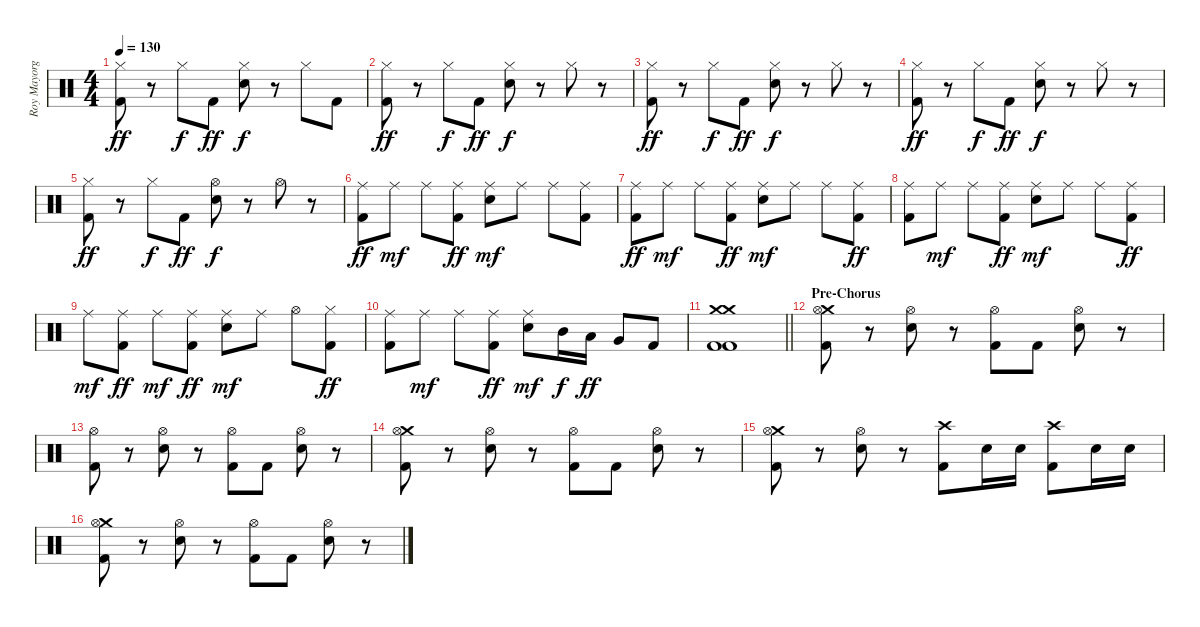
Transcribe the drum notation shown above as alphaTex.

\track ("Roy Mayorga (Drums)" "Roy Mayorg") {instrument percussion}
\staff {score}
\articulation defaults
\ts (4 4)
\tempo 130
\clef neutral
\ks c
("Hi-Hat (closed)" "Kick (hit) 2").8{dy ff} r.8 "Hi-Hat (closed)".8{dy f} "Kick (hit) 2".8{dy ff} ("Hi-Hat (closed)" "Snare (hit) 2").8{dy f} r.8 "Hi-Hat (closed)".8 "Kick (hit) 2".8 |
("Hi-Hat (closed)" "Kick (hit) 2").8{dy ff} r.8 "Hi-Hat (closed)".8{dy f} "Kick (hit) 2".8{dy ff} ("Hi-Hat (closed)" "Snare (hit) 2").8{dy f} r.8 "Hi-Hat (closed)".8 r.8 |
("Hi-Hat (closed)" "Kick (hit) 2").8{dy ff} r.8 "Hi-Hat (closed)".8{dy f} "Kick (hit) 2".8{dy ff} ("Hi-Hat (closed)" "Snare (hit) 2").8{dy f} r.8 "Hi-Hat (closed)".8 r.8 |
("Hi-Hat (closed)" "Kick (hit) 2").8{dy ff} r.8 "Hi-Hat (closed)".8{dy f} "Kick (hit) 2".8{dy ff} ("Hi-Hat (closed)" "Snare (hit) 2").8{dy f} r.8 "Hi-Hat (closed)".8 r.8 |
("Hi-Hat (closed)" "Kick (hit) 2").8{dy ff} r.8 "Hi-Hat (closed)".8{dy f} "Kick (hit) 2".8{dy ff} ("Hi-Hat (open)" "Snare (hit) 2").8{dy f} r.8 "Hi-Hat (open)".8 r.8 |
("Ride (middle)" "Kick (hit) 2").8{dy ff} "Ride (middle)".8{dy mf} "Ride (middle)".8 ("Ride (middle)" "Kick (hit) 2").8{dy ff} ("Ride (middle)" "Electric Snare (hit)").8{dy mf} "Ride (middle)".8 "Ride (middle)".8 ("Ride (middle)" "Kick (hit) 2").8 |
("Ride (middle)" "Kick (hit) 2").8{dy ff} "Ride (middle)".8{dy mf} "Ride (middle)".8 ("Ride (middle)" "Kick (hit) 2").8{dy ff} ("Ride (middle)" "Electric Snare (hit)").8{dy mf} "Ride (middle)".8 "Ride (middle)".8 ("Ride (middle)" "Kick (hit) 2").8{dy ff} |
("Ride (middle)" "Kick (hit) 2").8 "Ride (middle)".8{dy mf} "Ride (middle)".8 ("Ride (middle)" "Kick (hit) 2").8{dy ff} ("Ride (middle)" "Electric Snare (hit)").8{dy mf} "Ride (middle)".8 "Ride (middle)".8 ("Ride (middle)" "Kick (hit) 2").8{dy ff} |
"Ride (middle)".8{dy mf} ("Ride (middle)" "Kick (hit) 2").8{dy ff} "Ride (middle)".8{dy mf} ("Ride (middle)" "Kick (hit) 2").8{dy ff} ("Ride (middle)" "Electric Snare (hit)").8{dy mf} "Ride (middle)".8 "Hi-Hat (open)".8 ("Hi-Hat (closed)" "Kick (hit) 2").8{dy ff} |
("Ride (middle)" "Kick (hit) 2").8 "Ride (middle)".8{dy mf} "Ride (middle)".8 ("Ride (middle)" "Kick (hit) 2").8{dy ff} ("Ride (middle)" "Electric Snare (hit)").8{dy mf} "Mid Tom (hit)".16{dy f} "Low Tom (hit)".16{dy ff} "Very Low Tom (hit)".8 "Kick (hit) 2".8 |
\barLineRight lightlight
("Crash medium (hit)" "Crash medium (hit)" "Kick (hit) 2" "Kick (hit) 2").1 |
\section ("" "Pre-Chorus")
("Crash medium (hit)" "Hi-Hat (open)" "Kick (hit) 2").8 r.8 ("Hi-Hat (open)" "Electric Snare (hit)").8 r.8 ("Hi-Hat (open)" "Kick (hit) 2").8 "Kick (hit) 2".8 ("Hi-Hat (open)" "Electric Snare (hit)").8 r.8 |
("Hi-Hat (open)" "Kick (hit) 2").8 r.8 ("Hi-Hat (open)" "Electric Snare (hit)").8 r.8 ("Hi-Hat (open)" "Kick (hit) 2").8 "Kick (hit) 2".8 ("Hi-Hat (open)" "Electric Snare (hit)").8 r.8 |
("Crash medium (hit)" "Hi-Hat (open)" "Kick (hit) 2").8 r.8 ("Hi-Hat (open)" "Electric Snare (hit)").8 r.8 ("Hi-Hat (open)" "Kick (hit) 2").8 "Kick (hit) 2".8 ("Hi-Hat (open)" "Electric Snare (hit)").8 r.8 |
("Crash medium (hit)" "Hi-Hat (open)" "Kick (hit) 2").8 r.8 ("Hi-Hat (open)" "Electric Snare (hit)").8 r.8 ("Crash high (hit)" "Kick (hit) 2").8 "Electric Snare (hit)".16 "Electric Snare (hit)".16 ("Crash high (hit)" "Kick (hit) 2").8 "Electric Snare (hit)".16 "Electric Snare (hit)".16 |
("Crash medium (hit)" "Hi-Hat (open)" "Kick (hit) 2").8 r.8 ("Hi-Hat (open)" "Electric Snare (hit)").8 r.8 ("Hi-Hat (open)" "Kick (hit) 2").8 "Kick (hit) 2".8 ("Hi-Hat (open)" "Electric Snare (hit)").8 r.8
